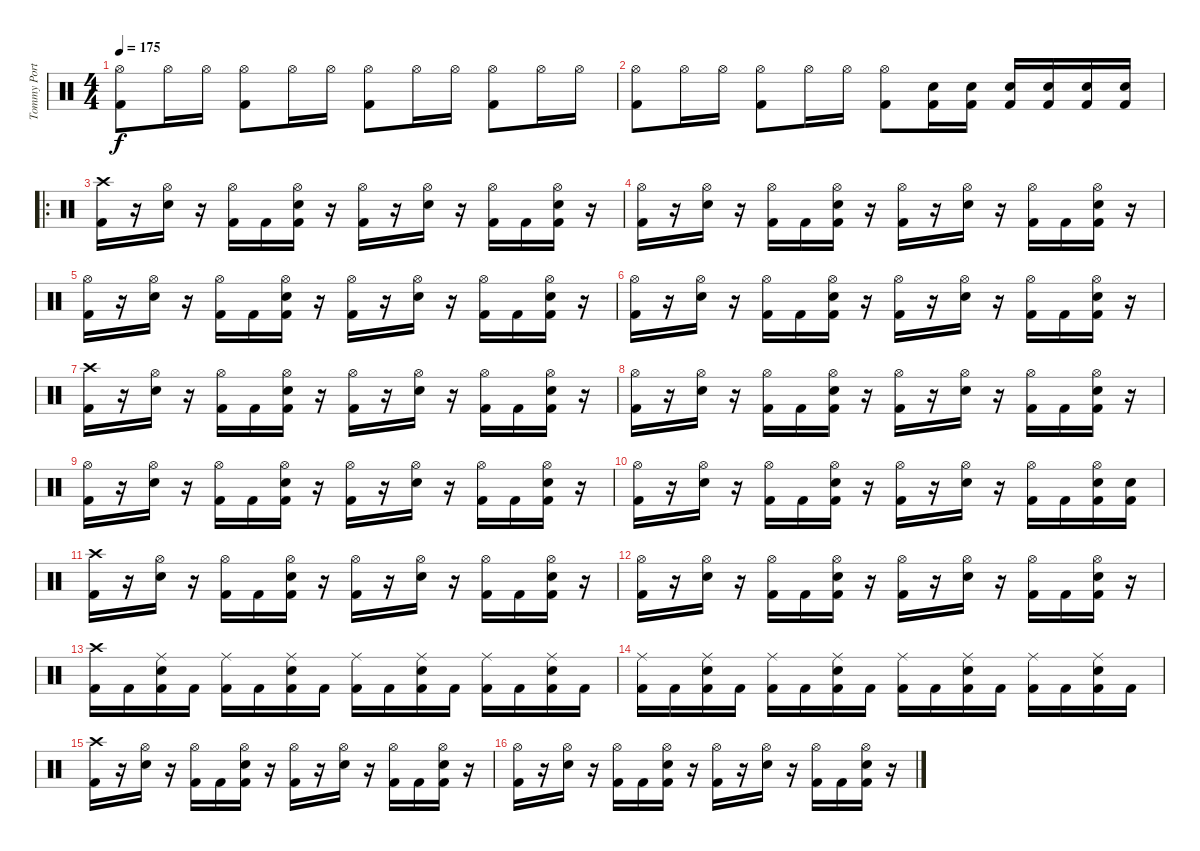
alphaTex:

\track ("Tommy Portimo" "Tommy Port") {instrument percussion}
\staff {score}
\articulation defaults
\ts (4 4)
\tempo 175
\clef neutral
\ks c
("Hi-Hat (open)" "Kick (hit) 2").8{dy f} "Hi-Hat (open)".16 "Hi-Hat (open)".16 ("Hi-Hat (open)" "Kick (hit) 2").8 "Hi-Hat (open)".16 "Hi-Hat (open)".16 ("Hi-Hat (open)" "Kick (hit) 2").8 "Hi-Hat (open)".16 "Hi-Hat (open)".16 ("Hi-Hat (open)" "Kick (hit) 2").8 "Hi-Hat (open)".16 "Hi-Hat (open)".16 |
("Hi-Hat (open)" "Kick (hit) 2").8 "Hi-Hat (open)".16 "Hi-Hat (open)".16 ("Hi-Hat (open)" "Kick (hit) 2").8 "Hi-Hat (open)".16 "Hi-Hat (open)".16 ("Hi-Hat (open)" "Kick (hit) 2").8 ("Electric Snare (hit)" "Kick (hit) 2").16 ("Electric Snare (hit)" "Kick (hit) 2").16 ("Electric Snare (hit)" "Kick (hit) 2").16 ("Electric Snare (hit)" "Kick (hit) 2").16 ("Electric Snare (hit)" "Kick (hit) 2").16 ("Electric Snare (hit)" "Kick (hit) 2").16 |
\ro
("Crash high (hit)" "Kick (hit) 2").16 r.16 ("Hi-Hat (open)" "Electric Snare (hit)").16 r.16 ("Hi-Hat (open)" "Kick (hit) 2").16 "Kick (hit) 2".16 ("Hi-Hat (open)" "Electric Snare (hit)" "Kick (hit) 2").16 r.16 ("Hi-Hat (open)" "Kick (hit) 2").16 r.16 ("Hi-Hat (open)" "Electric Snare (hit)").16 r.16 ("Hi-Hat (open)" "Kick (hit) 2").16 "Kick (hit) 2".16 ("Hi-Hat (open)" "Electric Snare (hit)" "Kick (hit) 2").16 r.16 |
("Hi-Hat (open)" "Kick (hit) 2").16 r.16 ("Hi-Hat (open)" "Electric Snare (hit)").16 r.16 ("Hi-Hat (open)" "Kick (hit) 2").16 "Kick (hit) 2".16 ("Hi-Hat (open)" "Electric Snare (hit)" "Kick (hit) 2").16 r.16 ("Hi-Hat (open)" "Kick (hit) 2").16 r.16 ("Hi-Hat (open)" "Electric Snare (hit)").16 r.16 ("Hi-Hat (open)" "Kick (hit) 2").16 "Kick (hit) 2".16 ("Hi-Hat (open)" "Electric Snare (hit)" "Kick (hit) 2").16 r.16 |
("Hi-Hat (open)" "Kick (hit) 2").16 r.16 ("Hi-Hat (open)" "Electric Snare (hit)").16 r.16 ("Hi-Hat (open)" "Kick (hit) 2").16 "Kick (hit) 2".16 ("Hi-Hat (open)" "Electric Snare (hit)" "Kick (hit) 2").16 r.16 ("Hi-Hat (open)" "Kick (hit) 2").16 r.16 ("Hi-Hat (open)" "Electric Snare (hit)").16 r.16 ("Hi-Hat (open)" "Kick (hit) 2").16 "Kick (hit) 2".16 ("Hi-Hat (open)" "Electric Snare (hit)" "Kick (hit) 2").16 r.16 |
("Hi-Hat (open)" "Kick (hit) 2").16 r.16 ("Hi-Hat (open)" "Electric Snare (hit)").16 r.16 ("Hi-Hat (open)" "Kick (hit) 2").16 "Kick (hit) 2".16 ("Hi-Hat (open)" "Electric Snare (hit)" "Kick (hit) 2").16 r.16 ("Hi-Hat (open)" "Kick (hit) 2").16 r.16 ("Hi-Hat (open)" "Electric Snare (hit)").16 r.16 ("Hi-Hat (open)" "Kick (hit) 2").16 "Kick (hit) 2".16 ("Hi-Hat (open)" "Electric Snare (hit)" "Kick (hit) 2").16 r.16 |
("Crash high (hit)" "Kick (hit) 2").16 r.16 ("Hi-Hat (open)" "Electric Snare (hit)").16 r.16 ("Hi-Hat (open)" "Kick (hit) 2").16 "Kick (hit) 2".16 ("Hi-Hat (open)" "Electric Snare (hit)" "Kick (hit) 2").16 r.16 ("Hi-Hat (open)" "Kick (hit) 2").16 r.16 ("Hi-Hat (open)" "Electric Snare (hit)").16 r.16 ("Hi-Hat (open)" "Kick (hit) 2").16 "Kick (hit) 2".16 ("Hi-Hat (open)" "Electric Snare (hit)" "Kick (hit) 2").16 r.16 |
("Hi-Hat (open)" "Kick (hit) 2").16 r.16 ("Hi-Hat (open)" "Electric Snare (hit)").16 r.16 ("Hi-Hat (open)" "Kick (hit) 2").16 "Kick (hit) 2".16 ("Hi-Hat (open)" "Electric Snare (hit)" "Kick (hit) 2").16 r.16 ("Hi-Hat (open)" "Kick (hit) 2").16 r.16 ("Hi-Hat (open)" "Electric Snare (hit)").16 r.16 ("Hi-Hat (open)" "Kick (hit) 2").16 "Kick (hit) 2".16 ("Hi-Hat (open)" "Electric Snare (hit)" "Kick (hit) 2").16 r.16 |
("Hi-Hat (open)" "Kick (hit) 2").16 r.16 ("Hi-Hat (open)" "Electric Snare (hit)").16 r.16 ("Hi-Hat (open)" "Kick (hit) 2").16 "Kick (hit) 2".16 ("Hi-Hat (open)" "Electric Snare (hit)" "Kick (hit) 2").16 r.16 ("Hi-Hat (open)" "Kick (hit) 2").16 r.16 ("Hi-Hat (open)" "Electric Snare (hit)").16 r.16 ("Hi-Hat (open)" "Kick (hit) 2").16 "Kick (hit) 2".16 ("Hi-Hat (open)" "Electric Snare (hit)" "Kick (hit) 2").16 r.16 |
("Hi-Hat (open)" "Kick (hit) 2").16 r.16 ("Hi-Hat (open)" "Electric Snare (hit)").16 r.16 ("Hi-Hat (open)" "Kick (hit) 2").16 "Kick (hit) 2".16 ("Hi-Hat (open)" "Electric Snare (hit)" "Kick (hit) 2").16 r.16 ("Hi-Hat (open)" "Kick (hit) 2").16 r.16 ("Hi-Hat (open)" "Electric Snare (hit)").16 r.16 ("Hi-Hat (open)" "Kick (hit) 2").16 "Kick (hit) 2".16 ("Hi-Hat (open)" "Electric Snare (hit)" "Kick (hit) 2").16 ("Electric Snare (hit)" "Kick (hit) 2").16 |
("Crash high (hit)" "Kick (hit) 2").16 r.16 ("Hi-Hat (open)" "Electric Snare (hit)").16 r.16 ("Hi-Hat (open)" "Kick (hit) 2").16 "Kick (hit) 2".16 ("Hi-Hat (open)" "Electric Snare (hit)" "Kick (hit) 2").16 r.16 ("Hi-Hat (open)" "Kick (hit) 2").16 r.16 ("Hi-Hat (open)" "Electric Snare (hit)").16 r.16 ("Hi-Hat (open)" "Kick (hit) 2").16 "Kick (hit) 2".16 ("Hi-Hat (open)" "Electric Snare (hit)" "Kick (hit) 2").16 r.16 |
("Hi-Hat (open)" "Kick (hit) 2").16 r.16 ("Hi-Hat (open)" "Electric Snare (hit)").16 r.16 ("Hi-Hat (open)" "Kick (hit) 2").16 "Kick (hit) 2".16 ("Hi-Hat (open)" "Electric Snare (hit)" "Kick (hit) 2").16 r.16 ("Hi-Hat (open)" "Kick (hit) 2").16 r.16 ("Hi-Hat (open)" "Electric Snare (hit)").16 r.16 ("Hi-Hat (open)" "Kick (hit) 2").16 "Kick (hit) 2".16 ("Hi-Hat (open)" "Electric Snare (hit)" "Kick (hit) 2").16 r.16 |
("Crash high (hit)" "Kick (hit) 2").16 "Kick (hit) 2".16 ("Ride (middle)" "Electric Snare (hit)" "Kick (hit) 2").16 "Kick (hit) 2".16 ("Ride (middle)" "Kick (hit) 2").16 "Kick (hit) 2".16 ("Ride (middle)" "Electric Snare (hit)" "Kick (hit) 2").16 "Kick (hit) 2".16 ("Ride (middle)" "Kick (hit) 2").16 "Kick (hit) 2".16 ("Ride (middle)" "Electric Snare (hit)" "Kick (hit) 2").16 "Kick (hit) 2".16 ("Ride (middle)" "Kick (hit) 2").16 "Kick (hit) 2".16 ("Ride (middle)" "Electric Snare (hit)" "Kick (hit) 2").16 "Kick (hit) 2".16 |
("Ride (middle)" "Kick (hit) 2").16 "Kick (hit) 2".16 ("Ride (middle)" "Electric Snare (hit)" "Kick (hit) 2").16 "Kick (hit) 2".16 ("Ride (middle)" "Kick (hit) 2").16 "Kick (hit) 2".16 ("Ride (middle)" "Electric Snare (hit)" "Kick (hit) 2").16 "Kick (hit) 2".16 ("Ride (middle)" "Kick (hit) 2").16 "Kick (hit) 2".16 ("Ride (middle)" "Electric Snare (hit)" "Kick (hit) 2").16 "Kick (hit) 2".16 ("Ride (middle)" "Kick (hit) 2").16 "Kick (hit) 2".16 ("Ride (middle)" "Electric Snare (hit)" "Kick (hit) 2").16 "Kick (hit) 2".16 |
("Crash high (hit)" "Kick (hit) 2").16 r.16 ("Hi-Hat (open)" "Electric Snare (hit)").16 r.16 ("Hi-Hat (open)" "Kick (hit) 2").16 "Kick (hit) 2".16 ("Hi-Hat (open)" "Electric Snare (hit)" "Kick (hit) 2").16 r.16 ("Hi-Hat (open)" "Kick (hit) 2").16 r.16 ("Hi-Hat (open)" "Electric Snare (hit)").16 r.16 ("Hi-Hat (open)" "Kick (hit) 2").16 "Kick (hit) 2".16 ("Hi-Hat (open)" "Electric Snare (hit)" "Kick (hit) 2").16 r.16 |
("Hi-Hat (open)" "Kick (hit) 2").16 r.16 ("Hi-Hat (open)" "Electric Snare (hit)").16 r.16 ("Hi-Hat (open)" "Kick (hit) 2").16 "Kick (hit) 2".16 ("Hi-Hat (open)" "Electric Snare (hit)" "Kick (hit) 2").16 r.16 ("Hi-Hat (open)" "Kick (hit) 2").16 r.16 ("Hi-Hat (open)" "Electric Snare (hit)").16 r.16 ("Hi-Hat (open)" "Kick (hit) 2").16 "Kick (hit) 2".16 ("Hi-Hat (open)" "Electric Snare (hit)" "Kick (hit) 2").16 r.16
